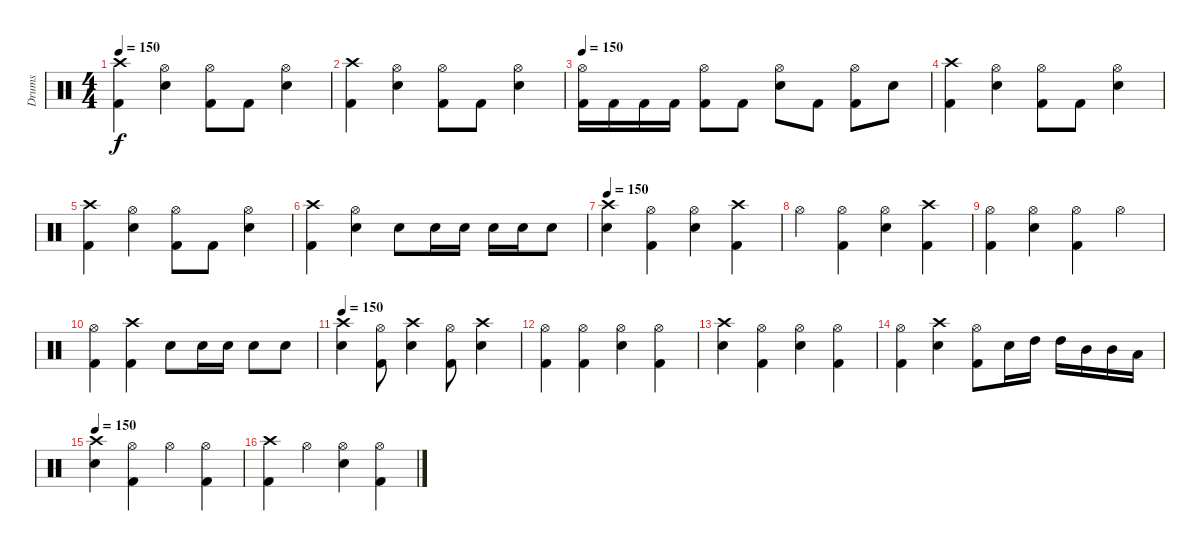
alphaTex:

\track ("Drums" "Drums") {instrument percussion}
\staff {score}
\articulation defaults
\ts (4 4)
\tempo 150
\clef neutral
\ks c
("Crash high (hit)" "Kick (hit) 2").4{dy f} ("Hi-Hat (open)" "Electric Snare (hit)").4 ("Hi-Hat (open)" "Kick (hit) 2").8 "Kick (hit) 2".8 ("Hi-Hat (open)" "Electric Snare (hit)").4 |
("Crash high (hit)" "Kick (hit) 2").4 ("Hi-Hat (open)" "Electric Snare (hit)").4 ("Hi-Hat (open)" "Kick (hit) 2").8 "Kick (hit) 2".8 ("Hi-Hat (open)" "Electric Snare (hit)").4 |
\tempo 150
("Hi-Hat (open)" "Kick (hit) 2").16 "Kick (hit) 2".16 "Kick (hit) 2".16 "Kick (hit) 2".16 ("Hi-Hat (open)" "Kick (hit) 2").8 "Kick (hit) 2".8 ("Hi-Hat (open)" "Electric Snare (hit)").8 "Kick (hit) 2".8 ("Hi-Hat (open)" "Kick (hit) 2").8 "Electric Snare (hit)".8 |
("Crash high (hit)" "Kick (hit) 2").4 ("Hi-Hat (open)" "Electric Snare (hit)").4 ("Hi-Hat (open)" "Kick (hit) 2").8 "Kick (hit) 2".8 ("Hi-Hat (open)" "Electric Snare (hit)").4 |
("Crash high (hit)" "Kick (hit) 2").4 ("Hi-Hat (open)" "Electric Snare (hit)").4 ("Hi-Hat (open)" "Kick (hit) 2").8 "Kick (hit) 2".8 ("Hi-Hat (open)" "Electric Snare (hit)").4 |
("Crash high (hit)" "Kick (hit) 2").4 ("Hi-Hat (open)" "Electric Snare (hit)").4 "Electric Snare (hit)".8 "Electric Snare (hit)".16 "Electric Snare (hit)".16 "Electric Snare (hit)".16 "Electric Snare (hit)".16 "Electric Snare (hit)".8 |
\tempo 150
("Crash high (hit)" "Electric Snare (hit)").4 ("Hi-Hat (open)" "Kick (hit) 2").4 ("Hi-Hat (open)" "Electric Snare (hit)").4 ("Crash high (hit)" "Kick (hit) 2").4 |
"Hi-Hat (open)".4 ("Hi-Hat (open)" "Kick (hit) 2").4 ("Hi-Hat (open)" "Electric Snare (hit)").4 ("Crash high (hit)" "Kick (hit) 2").4 |
("Hi-Hat (open)" "Kick (hit) 2").4 ("Hi-Hat (open)" "Electric Snare (hit)").4 ("Hi-Hat (open)" "Kick (hit) 2").4 "Hi-Hat (open)".4 |
("Hi-Hat (open)" "Kick (hit) 2").4 ("Crash high (hit)" "Kick (hit) 2").4 "Electric Snare (hit)".8 "Electric Snare (hit)".16 "Electric Snare (hit)".16 "Electric Snare (hit)".8 "Electric Snare (hit)".8 |
\tempo 150
("Crash high (hit)" "Electric Snare (hit)").4 ("Hi-Hat (open)" "Kick (hit) 2").8 ("Crash high (hit)" "Electric Snare (hit)").4 ("Hi-Hat (open)" "Kick (hit) 2").8 ("Crash high (hit)" "Electric Snare (hit)").4 |
("Hi-Hat (open)" "Kick (hit) 2").4 ("Hi-Hat (open)" "Kick (hit) 2").4 ("Hi-Hat (open)" "Electric Snare (hit)").4 ("Hi-Hat (open)" "Kick (hit) 2").4 |
("Crash high (hit)" "Electric Snare (hit)").4 ("Hi-Hat (open)" "Kick (hit) 2").4 ("Hi-Hat (open)" "Electric Snare (hit)").4 ("Hi-Hat (open)" "Kick (hit) 2").4 |
("Hi-Hat (open)" "Kick (hit) 2").4 ("Crash high (hit)" "Electric Snare (hit)").4 ("Hi-Hat (open)" "Kick (hit) 2").8 "Electric Snare (hit)".16 "High Tom (hit)".16 "High Tom (hit)".16 "Mid Tom (hit)".16 "Mid Tom (hit)".16 "Low Tom (hit)".16 |
\tempo 150
("Crash high (hit)" "Electric Snare (hit)").4 ("Hi-Hat (open)" "Kick (hit) 2").4 "Hi-Hat (open)".4 ("Hi-Hat (open)" "Kick (hit) 2").4 |
("Crash high (hit)" "Kick (hit) 2").4 "Hi-Hat (open)".4 ("Hi-Hat (open)" "Electric Snare (hit)").4 ("Hi-Hat (open)" "Kick (hit) 2").4
